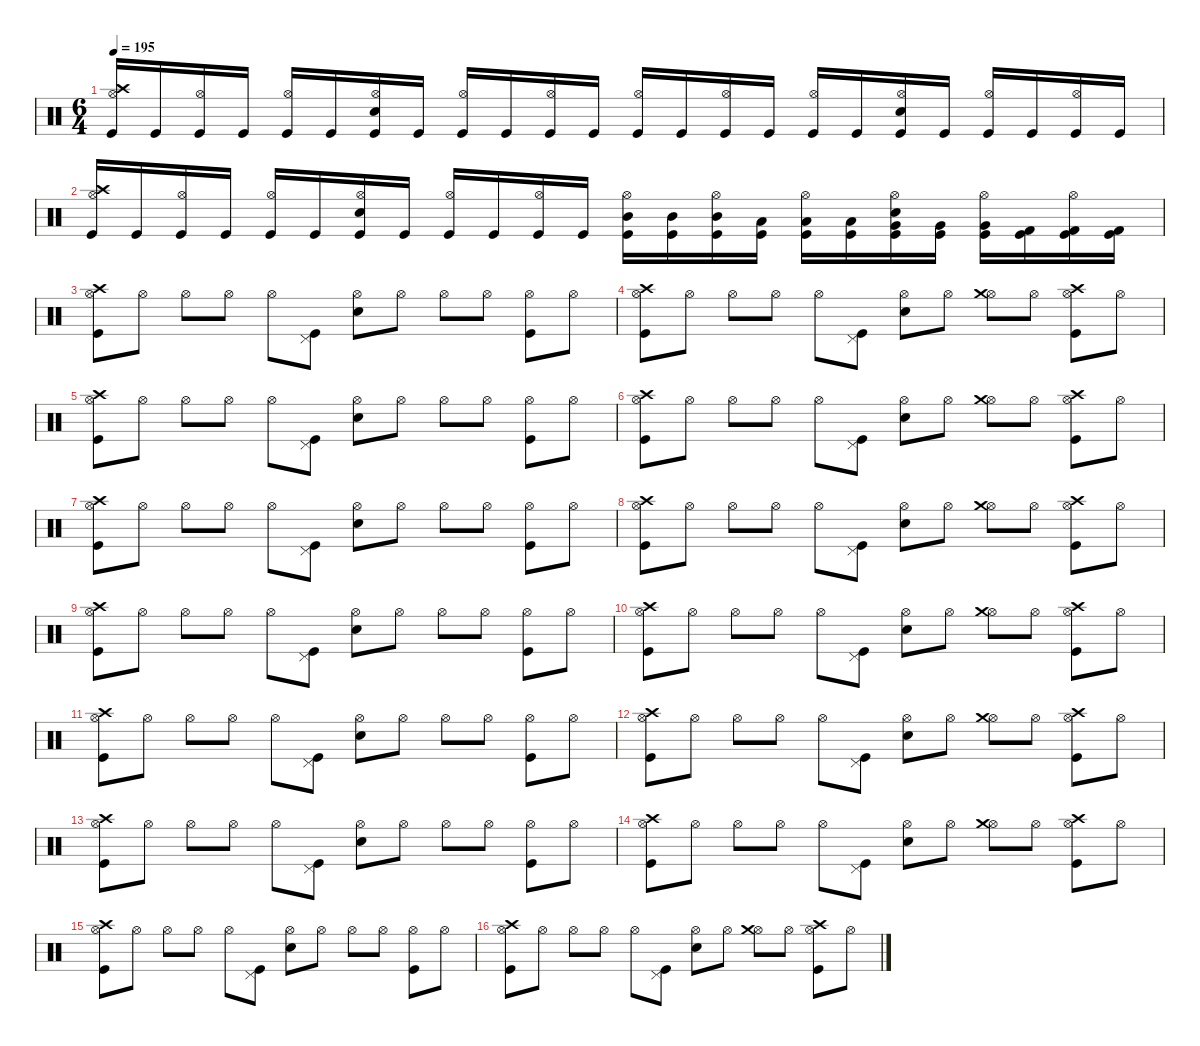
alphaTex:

\defaultSystemsLayout 4
\hideDynamics
\bracketExtendMode nobrackets
\singleTrackTrackNamePolicy hidden
\multiTrackTrackNamePolicy hidden
\firstSystemTrackNameMode fullname
\firstSystemTrackNameOrientation horizontal
\otherSystemsTrackNameOrientation horizontal
\track ("Percussion" "drm.") {defaultSystemsLayout 2 instrument percussion}
\staff {score}
\articulation defaults
\ts (6 4)
\tempo 195
\clef neutral
\ks c
("Crash high (hit)" "Hi-Hat (open)" "Kick (hit)").16{dy f beam Up} "Kick (hit)".16{beam Up} ("Hi-Hat (open)" "Kick (hit)").16{beam Up} "Kick (hit)".16{beam Up} ("Hi-Hat (open)" "Kick (hit)").16{beam Up} "Kick (hit)".16{beam Up} ("Snare (hit) 2" "Hi-Hat (open)" "Kick (hit)").16{beam Up} "Kick (hit)".16{beam Up} ("Hi-Hat (open)" "Kick (hit)").16{beam Up} "Kick (hit)".16{beam Up} ("Hi-Hat (open)" "Kick (hit)").16{beam Up} "Kick (hit)".16{beam Up} ("Hi-Hat (open)" "Kick (hit)").16{beam Up} "Kick (hit)".16{beam Up} ("Hi-Hat (open)" "Kick (hit)").16{beam Up} "Kick (hit)".16{beam Up} ("Hi-Hat (open)" "Kick (hit)").16{beam Up} "Kick (hit)".16{beam Up} ("Snare (hit) 2" "Hi-Hat (open)" "Kick (hit)").16{beam Up} "Kick (hit)".16{beam Up} ("Hi-Hat (open)" "Kick (hit)").16{beam Up} "Kick (hit)".16{beam Up} ("Hi-Hat (open)" "Kick (hit)").16{beam Up} "Kick (hit)".16{beam Up} |
("Crash high (hit)" "Hi-Hat (open)" "Kick (hit)").16{beam Up} "Kick (hit)".16{beam Up} ("Hi-Hat (open)" "Kick (hit)").16{beam Up} "Kick (hit)".16{beam Up} ("Hi-Hat (open)" "Kick (hit)").16{beam Up} "Kick (hit)".16{beam Up} ("Snare (hit) 2" "Hi-Hat (open)" "Kick (hit)").16{beam Up} "Kick (hit)".16{beam Up} ("Hi-Hat (open)" "Kick (hit)").16{beam Up} "Kick (hit)".16{beam Up} ("Hi-Hat (open)" "Kick (hit)").16{beam Up} "Kick (hit)".16{beam Up} ("Hi-Hat (open)" "Mid Tom (hit)" "Kick (hit)").16{beam Down} ("Mid Tom (hit)" "Kick (hit)").16{beam Down} ("Hi-Hat (open)" "Mid Tom (hit)" "Kick (hit)").16{beam Down} ("Low Tom (hit)" "Kick (hit)").16{beam Down} ("Hi-Hat (open)" "Low Tom (hit)" "Kick (hit)").16{beam Down} ("Low Tom (hit)" "Kick (hit)").16{beam Down} ("Snare (hit) 2" "Hi-Hat (open)" "Very Low Tom (hit)" "Kick (hit)").16{beam Down} ("Very Low Tom (hit)" "Kick (hit)").16{beam Down} ("Hi-Hat (open)" "Very Low Tom (hit)" "Kick (hit)").16{beam Down} ("Kick (hit) 2" "Kick (hit)").16{beam Down} ("Hi-Hat (open)" "Kick (hit) 2" "Kick (hit)").16{beam Down} ("Kick (hit) 2" "Kick (hit)").16{beam Down} |
("Crash high (hit)" "Hi-Hat (open)" "Kick (hit)").8{beam Down} "Hi-Hat (open)".8{beam Down} "Hi-Hat (open)".8{beam Down} "Hi-Hat (open)".8{beam Down} "Hi-Hat (open)".8{beam Down} ("Pedal Hi-Hat (hit)" "Kick (hit)").8{beam Down} ("Hi-Hat (open)" "Snare (hit) 2").8{beam Down} "Hi-Hat (open)".8{beam Down} "Hi-Hat (open)".8{beam Down} "Hi-Hat (open)".8{beam Down} ("Hi-Hat (open)" "Kick (hit)").8{beam Down} "Hi-Hat (open)".8{beam Down} |
("Crash high (hit)" "Hi-Hat (open)" "Kick (hit)").8{beam Down} "Hi-Hat (open)".8{beam Down} "Hi-Hat (open)".8{beam Down} "Hi-Hat (open)".8{beam Down} "Hi-Hat (open)".8{beam Down} ("Pedal Hi-Hat (hit)" "Kick (hit)").8{beam Down} ("Hi-Hat (open)" "Snare (hit) 2").8{beam Down} "Hi-Hat (open)".8{beam Down} ("Hi-Hat (open)" "Crash medium (hit)").8{beam Down} "Hi-Hat (open)".8{beam Down} ("Hi-Hat (open)" "Crash high (hit)" "Kick (hit)").8{beam Down} "Hi-Hat (open)".8{beam Down} |
("Crash high (hit)" "Hi-Hat (open)" "Kick (hit)").8{beam Down} "Hi-Hat (open)".8{beam Down} "Hi-Hat (open)".8{beam Down} "Hi-Hat (open)".8{beam Down} "Hi-Hat (open)".8{beam Down} ("Pedal Hi-Hat (hit)" "Kick (hit)").8{beam Down} ("Hi-Hat (open)" "Snare (hit) 2").8{beam Down} "Hi-Hat (open)".8{beam Down} "Hi-Hat (open)".8{beam Down} "Hi-Hat (open)".8{beam Down} ("Hi-Hat (open)" "Kick (hit)").8{beam Down} "Hi-Hat (open)".8{beam Down} |
("Crash high (hit)" "Hi-Hat (open)" "Kick (hit)").8{beam Down} "Hi-Hat (open)".8{beam Down} "Hi-Hat (open)".8{beam Down} "Hi-Hat (open)".8{beam Down} "Hi-Hat (open)".8{beam Down} ("Pedal Hi-Hat (hit)" "Kick (hit)").8{beam Down} ("Hi-Hat (open)" "Snare (hit) 2").8{beam Down} "Hi-Hat (open)".8{beam Down} ("Hi-Hat (open)" "Crash medium (hit)").8{beam Down} "Hi-Hat (open)".8{beam Down} ("Hi-Hat (open)" "Crash high (hit)" "Kick (hit)").8{beam Down} "Hi-Hat (open)".8{beam Down} |
("Crash high (hit)" "Hi-Hat (open)" "Kick (hit)").8{beam Down} "Hi-Hat (open)".8{beam Down} "Hi-Hat (open)".8{beam Down} "Hi-Hat (open)".8{beam Down} "Hi-Hat (open)".8{beam Down} ("Pedal Hi-Hat (hit)" "Kick (hit)").8{beam Down} ("Hi-Hat (open)" "Snare (hit) 2").8{beam Down} "Hi-Hat (open)".8{beam Down} "Hi-Hat (open)".8{beam Down} "Hi-Hat (open)".8{beam Down} ("Hi-Hat (open)" "Kick (hit)").8{beam Down} "Hi-Hat (open)".8{beam Down} |
("Crash high (hit)" "Hi-Hat (open)" "Kick (hit)").8{beam Down} "Hi-Hat (open)".8{beam Down} "Hi-Hat (open)".8{beam Down} "Hi-Hat (open)".8{beam Down} "Hi-Hat (open)".8{beam Down} ("Pedal Hi-Hat (hit)" "Kick (hit)").8{beam Down} ("Hi-Hat (open)" "Snare (hit) 2").8{beam Down} "Hi-Hat (open)".8{beam Down} ("Hi-Hat (open)" "Crash medium (hit)").8{beam Down} "Hi-Hat (open)".8{beam Down} ("Hi-Hat (open)" "Crash high (hit)" "Kick (hit)").8{beam Down} "Hi-Hat (open)".8{beam Down} |
("Crash high (hit)" "Hi-Hat (open)" "Kick (hit)").8{beam Down} "Hi-Hat (open)".8{beam Down} "Hi-Hat (open)".8{beam Down} "Hi-Hat (open)".8{beam Down} "Hi-Hat (open)".8{beam Down} ("Pedal Hi-Hat (hit)" "Kick (hit)").8{beam Down} ("Hi-Hat (open)" "Snare (hit) 2").8{beam Down} "Hi-Hat (open)".8{beam Down} "Hi-Hat (open)".8{beam Down} "Hi-Hat (open)".8{beam Down} ("Hi-Hat (open)" "Kick (hit)").8{beam Down} "Hi-Hat (open)".8{beam Down} |
("Crash high (hit)" "Hi-Hat (open)" "Kick (hit)").8{beam Down} "Hi-Hat (open)".8{beam Down} "Hi-Hat (open)".8{beam Down} "Hi-Hat (open)".8{beam Down} "Hi-Hat (open)".8{beam Down} ("Pedal Hi-Hat (hit)" "Kick (hit)").8{beam Down} ("Hi-Hat (open)" "Snare (hit) 2").8{beam Down} "Hi-Hat (open)".8{beam Down} ("Hi-Hat (open)" "Crash medium (hit)").8{beam Down} "Hi-Hat (open)".8{beam Down} ("Hi-Hat (open)" "Crash high (hit)" "Kick (hit)").8{beam Down} "Hi-Hat (open)".8{beam Down} |
("Crash high (hit)" "Hi-Hat (open)" "Kick (hit)").8{beam Down} "Hi-Hat (open)".8{beam Down} "Hi-Hat (open)".8{beam Down} "Hi-Hat (open)".8{beam Down} "Hi-Hat (open)".8{beam Down} ("Pedal Hi-Hat (hit)" "Kick (hit)").8{beam Down} ("Hi-Hat (open)" "Snare (hit) 2").8{beam Down} "Hi-Hat (open)".8{beam Down} "Hi-Hat (open)".8{beam Down} "Hi-Hat (open)".8{beam Down} ("Hi-Hat (open)" "Kick (hit)").8{beam Down} "Hi-Hat (open)".8{beam Down} |
("Crash high (hit)" "Hi-Hat (open)" "Kick (hit)").8{beam Down} "Hi-Hat (open)".8{beam Down} "Hi-Hat (open)".8{beam Down} "Hi-Hat (open)".8{beam Down} "Hi-Hat (open)".8{beam Down} ("Pedal Hi-Hat (hit)" "Kick (hit)").8{beam Down} ("Hi-Hat (open)" "Snare (hit) 2").8{beam Down} "Hi-Hat (open)".8{beam Down} ("Hi-Hat (open)" "Crash medium (hit)").8{beam Down} "Hi-Hat (open)".8{beam Down} ("Hi-Hat (open)" "Crash high (hit)" "Kick (hit)").8{beam Down} "Hi-Hat (open)".8{beam Down} |
("Crash high (hit)" "Hi-Hat (open)" "Kick (hit)").8{beam Down} "Hi-Hat (open)".8{beam Down} "Hi-Hat (open)".8{beam Down} "Hi-Hat (open)".8{beam Down} "Hi-Hat (open)".8{beam Down} ("Pedal Hi-Hat (hit)" "Kick (hit)").8{beam Down} ("Hi-Hat (open)" "Snare (hit) 2").8{beam Down} "Hi-Hat (open)".8{beam Down} "Hi-Hat (open)".8{beam Down} "Hi-Hat (open)".8{beam Down} ("Hi-Hat (open)" "Kick (hit)").8{beam Down} "Hi-Hat (open)".8{beam Down} |
("Crash high (hit)" "Hi-Hat (open)" "Kick (hit)").8{beam Down} "Hi-Hat (open)".8{beam Down} "Hi-Hat (open)".8{beam Down} "Hi-Hat (open)".8{beam Down} "Hi-Hat (open)".8{beam Down} ("Pedal Hi-Hat (hit)" "Kick (hit)").8{beam Down} ("Hi-Hat (open)" "Snare (hit) 2").8{beam Down} "Hi-Hat (open)".8{beam Down} ("Hi-Hat (open)" "Crash medium (hit)").8{beam Down} "Hi-Hat (open)".8{beam Down} ("Hi-Hat (open)" "Crash high (hit)" "Kick (hit)").8{beam Down} "Hi-Hat (open)".8{beam Down} |
("Crash high (hit)" "Hi-Hat (open)" "Kick (hit)").8{beam Down} "Hi-Hat (open)".8{beam Down} "Hi-Hat (open)".8{beam Down} "Hi-Hat (open)".8{beam Down} "Hi-Hat (open)".8{beam Down} ("Pedal Hi-Hat (hit)" "Kick (hit)").8{beam Down} ("Hi-Hat (open)" "Snare (hit) 2").8{beam Down} "Hi-Hat (open)".8{beam Down} "Hi-Hat (open)".8{beam Down} "Hi-Hat (open)".8{beam Down} ("Hi-Hat (open)" "Kick (hit)").8{beam Down} "Hi-Hat (open)".8{beam Down} |
("Crash high (hit)" "Hi-Hat (open)" "Kick (hit)").8{beam Down} "Hi-Hat (open)".8{beam Down} "Hi-Hat (open)".8{beam Down} "Hi-Hat (open)".8{beam Down} "Hi-Hat (open)".8{beam Down} ("Pedal Hi-Hat (hit)" "Kick (hit)").8{beam Down} ("Hi-Hat (open)" "Snare (hit) 2").8{beam Down} "Hi-Hat (open)".8{beam Down} ("Hi-Hat (open)" "Crash medium (hit)").8{beam Down} "Hi-Hat (open)".8{beam Down} ("Hi-Hat (open)" "Crash high (hit)" "Kick (hit)").8{beam Down} "Hi-Hat (open)".8{beam Down}
